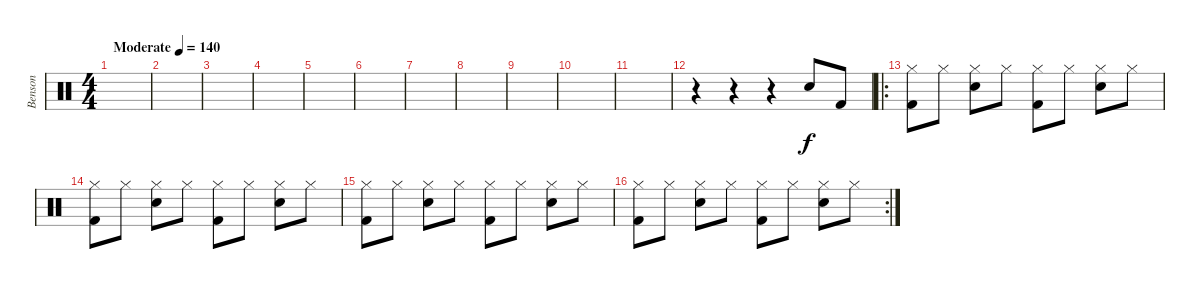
\track ("Benson" "Benson") {instrument percussion}
\staff {score}
\articulation defaults
\ts (4 4)
\tempo (140 "Moderate")
\clef neutral
\ks c
|
|
|
|
|
|
|
|
|
|
|
r.4 r.4 r.4 "Electric Snare (hit)".8 "Kick (hit) 2".8 |
\ro
("Hi-Hat (closed)" "Kick (hit) 2").8 "Hi-Hat (closed)".8 ("Hi-Hat (closed)" "Electric Snare (hit)").8 "Hi-Hat (closed)".8 ("Hi-Hat (closed)" "Kick (hit) 2").8 "Hi-Hat (closed)".8 ("Hi-Hat (closed)" "Electric Snare (hit)").8 "Hi-Hat (closed)".8 |
("Hi-Hat (closed)" "Kick (hit) 2").8 "Hi-Hat (closed)".8 ("Hi-Hat (closed)" "Electric Snare (hit)").8 "Hi-Hat (closed)".8 ("Hi-Hat (closed)" "Kick (hit) 2").8 "Hi-Hat (closed)".8 ("Hi-Hat (closed)" "Electric Snare (hit)").8 "Hi-Hat (closed)".8 |
("Hi-Hat (closed)" "Kick (hit) 2").8 "Hi-Hat (closed)".8 ("Hi-Hat (closed)" "Electric Snare (hit)").8 "Hi-Hat (closed)".8 ("Hi-Hat (closed)" "Kick (hit) 2").8 "Hi-Hat (closed)".8 ("Hi-Hat (closed)" "Electric Snare (hit)").8 "Hi-Hat (closed)".8 |
\rc 2
("Hi-Hat (closed)" "Kick (hit) 2").8 "Hi-Hat (closed)".8 ("Hi-Hat (closed)" "Electric Snare (hit)").8 "Hi-Hat (closed)".8 ("Hi-Hat (closed)" "Kick (hit) 2").8 "Hi-Hat (closed)".8 ("Hi-Hat (closed)" "Electric Snare (hit)").8 "Hi-Hat (closed)".8
